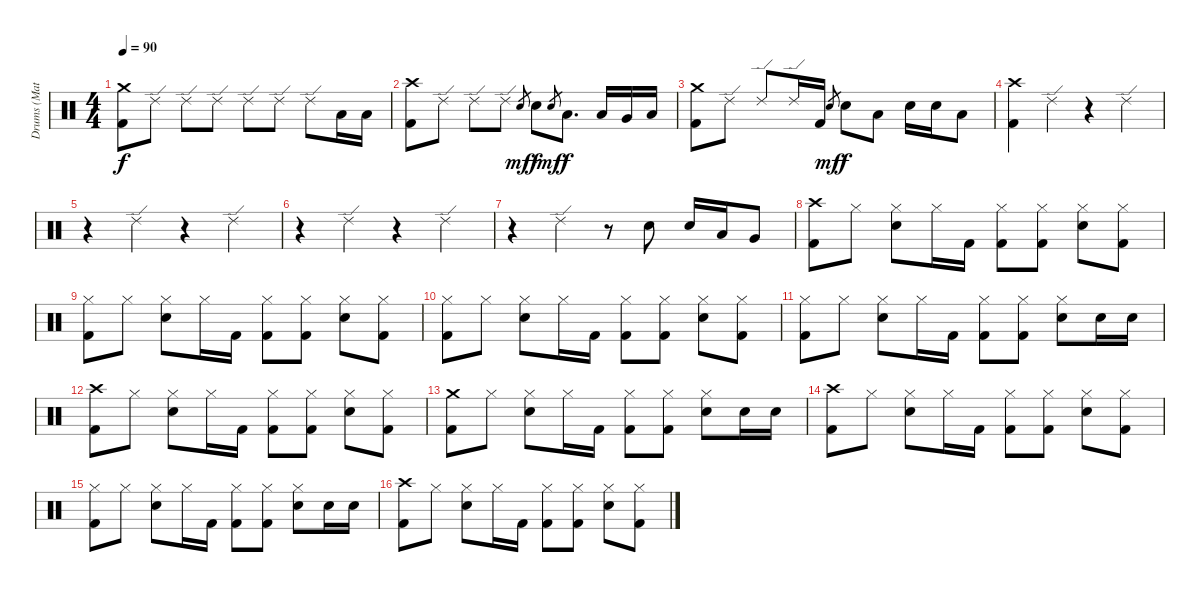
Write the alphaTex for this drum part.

\track ("Drums (Matt)" "Drums (Mat") {instrument percussion}
\staff {score}
\articulation defaults
\ts (4 4)
\tempo 90
\clef neutral
\ks c
("Crash medium (hit)" "Kick (hit) 2").8{dy f} "Ride (edge) 2".8 "Ride (edge) 2".8 "Ride (edge) 2".8 "Ride (edge) 2".8 "Ride (edge) 2".8 "Ride (edge) 2".8 "Low Tom (hit)".16 "Low Tom (hit)".16 |
("Crash high (hit)" "Kick (hit) 2").8 "Ride (edge) 2".8 "Ride (edge) 2".8 "Ride (edge) 2".8 "Snare (hit)".8{gr dy mf} "Snare (hit) 2".8{dy f} "Snare (hit)".8{gr dy mf} "Low Tom (hit)".8{d dy f} "Low Tom (hit)".16 "Very Low Tom (hit)".16 "Low Floor Tom (hit)".16 |
("Crash medium (hit)" "Kick (hit) 2").8 "Ride (edge) 2".8 "Ride (edge) 2".8 "Ride (edge) 2".16 "Kick (hit) 2".16 "Snare (hit)".8{gr dy mf} "Snare (hit) 2".8{dy f} "Low Tom (hit)".8 "Snare (hit) 2".16 "Snare (hit) 2".16 "Low Tom (hit)".8 |
("Crash high (hit)" "Kick (hit) 2").4 "Ride (edge) 2".4 r.4 "Ride (edge) 2".4 |
r.4 "Ride (edge) 2".4 r.4 "Ride (edge) 2".4 |
r.4 "Ride (edge) 2".4 r.4 "Ride (edge) 2".4 |
r.4 "Ride (edge) 2".4 r.8 "Snare (hit) 2".8 "Snare (hit) 2".16 "Low Tom (hit)".16 "Very Low Tom (hit)".8 |
("Crash high (hit)" "Kick (hit) 2").8 "Hi-Hat (closed)".8 ("Hi-Hat (closed)" "Snare (hit) 2").8 "Hi-Hat (closed)".16 "Kick (hit) 2".16 ("Hi-Hat (closed)" "Kick (hit) 2").8 ("Hi-Hat (closed)" "Kick (hit) 2").8 ("Hi-Hat (closed)" "Snare (hit) 2").8 ("Hi-Hat (closed)" "Kick (hit) 2").8 |
("Hi-Hat (closed)" "Kick (hit) 2").8 "Hi-Hat (closed)".8 ("Hi-Hat (closed)" "Snare (hit) 2").8 "Hi-Hat (closed)".16 "Kick (hit) 2".16 ("Hi-Hat (closed)" "Kick (hit) 2").8 ("Hi-Hat (closed)" "Kick (hit) 2").8 ("Hi-Hat (closed)" "Snare (hit) 2").8 ("Hi-Hat (closed)" "Kick (hit) 2").8 |
("Hi-Hat (closed)" "Kick (hit) 2").8 "Hi-Hat (closed)".8 ("Hi-Hat (closed)" "Snare (hit) 2").8 "Hi-Hat (closed)".16 "Kick (hit) 2".16 ("Hi-Hat (closed)" "Kick (hit) 2").8 ("Hi-Hat (closed)" "Kick (hit) 2").8 ("Hi-Hat (closed)" "Snare (hit) 2").8 ("Hi-Hat (closed)" "Kick (hit) 2").8 |
("Hi-Hat (closed)" "Kick (hit) 2").8 "Hi-Hat (closed)".8 ("Hi-Hat (closed)" "Snare (hit) 2").8 "Hi-Hat (closed)".16 "Kick (hit) 2".16 ("Hi-Hat (closed)" "Kick (hit) 2").8 ("Hi-Hat (closed)" "Kick (hit) 2").8 ("Hi-Hat (closed)" "Snare (hit) 2").8 "Snare (hit) 2".16 "Snare (hit) 2".16 |
("Crash high (hit)" "Kick (hit) 2").8 "Hi-Hat (closed)".8 ("Hi-Hat (closed)" "Snare (hit) 2").8 "Hi-Hat (closed)".16 "Kick (hit) 2".16 ("Hi-Hat (closed)" "Kick (hit) 2").8 ("Hi-Hat (closed)" "Kick (hit) 2").8 ("Hi-Hat (closed)" "Snare (hit) 2").8 ("Hi-Hat (closed)" "Kick (hit) 2").8 |
("Crash medium (hit)" "Kick (hit) 2").8 "Hi-Hat (closed)".8 ("Hi-Hat (closed)" "Snare (hit) 2").8 "Hi-Hat (closed)".16 "Kick (hit) 2".16 ("Hi-Hat (closed)" "Kick (hit) 2").8 ("Hi-Hat (closed)" "Kick (hit) 2").8 ("Hi-Hat (closed)" "Snare (hit) 2").8 "Snare (hit) 2".16 "Snare (hit) 2".16 |
("Crash high (hit)" "Kick (hit) 2").8 "Hi-Hat (closed)".8 ("Hi-Hat (closed)" "Snare (hit) 2").8 "Hi-Hat (closed)".16 "Kick (hit) 2".16 ("Hi-Hat (closed)" "Kick (hit) 2").8 ("Hi-Hat (closed)" "Kick (hit) 2").8 ("Hi-Hat (closed)" "Snare (hit) 2").8 ("Hi-Hat (closed)" "Kick (hit) 2").8 |
("Hi-Hat (closed)" "Kick (hit) 2").8 "Hi-Hat (closed)".8 ("Hi-Hat (closed)" "Snare (hit) 2").8 "Hi-Hat (closed)".16 "Kick (hit) 2".16 ("Hi-Hat (closed)" "Kick (hit) 2").8 ("Hi-Hat (closed)" "Kick (hit) 2").8 ("Hi-Hat (closed)" "Snare (hit) 2").8 "Snare (hit) 2".16 "Snare (hit) 2".16 |
("Crash high (hit)" "Kick (hit) 2").8 "Hi-Hat (closed)".8 ("Hi-Hat (closed)" "Snare (hit) 2").8 "Hi-Hat (closed)".16 "Kick (hit) 2".16 ("Hi-Hat (closed)" "Kick (hit) 2").8 ("Hi-Hat (closed)" "Kick (hit) 2").8 ("Hi-Hat (closed)" "Snare (hit) 2").8 ("Hi-Hat (closed)" "Kick (hit) 2").8
